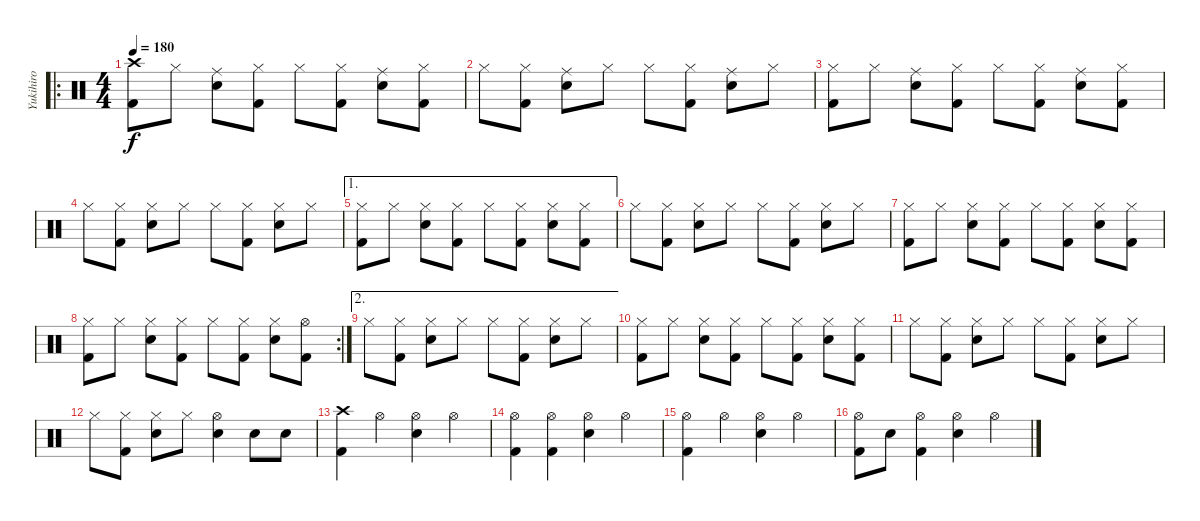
\track ("Yukihiro" "Yukihiro") {instrument percussion}
\staff {score}
\articulation defaults
\ro
\ts (4 4)
\tempo 180
\clef neutral
\ks c
("Crash high (hit)" "Kick (hit) 2").8{dy f} "Hi-Hat (closed)".8 ("Ride (middle)" "Electric Snare (hit)").8 ("Hi-Hat (closed)" "Kick (hit) 2").8 "Hi-Hat (closed)".8 ("Hi-Hat (closed)" "Kick (hit) 2").8 ("Ride (middle)" "Electric Snare (hit)").8 ("Hi-Hat (closed)" "Kick (hit) 2").8 |
"Hi-Hat (closed)".8 ("Hi-Hat (closed)" "Kick (hit) 2").8 ("Ride (middle)" "Electric Snare (hit)").8 "Hi-Hat (closed)".8 "Hi-Hat (closed)".8 ("Hi-Hat (closed)" "Kick (hit) 2").8 ("Ride (middle)" "Electric Snare (hit)").8 "Hi-Hat (closed)".8 |
("Hi-Hat (closed)" "Kick (hit) 2").8 "Hi-Hat (closed)".8 ("Ride (middle)" "Electric Snare (hit)").8 ("Hi-Hat (closed)" "Kick (hit) 2").8 "Hi-Hat (closed)".8 ("Hi-Hat (closed)" "Kick (hit) 2").8 ("Ride (middle)" "Electric Snare (hit)").8 ("Hi-Hat (closed)" "Kick (hit) 2").8 |
"Hi-Hat (closed)".8 ("Hi-Hat (closed)" "Kick (hit) 2").8 ("Hi-Hat (closed)" "Electric Snare (hit)").8 "Hi-Hat (closed)".8 "Hi-Hat (closed)".8 ("Hi-Hat (closed)" "Kick (hit) 2").8 ("Hi-Hat (closed)" "Electric Snare (hit)").8 "Hi-Hat (closed)".8 |
\ae 1
("Hi-Hat (closed)" "Kick (hit) 2").8 "Hi-Hat (closed)".8 ("Hi-Hat (closed)" "Electric Snare (hit)").8 ("Hi-Hat (closed)" "Kick (hit) 2").8 "Hi-Hat (closed)".8 ("Hi-Hat (closed)" "Kick (hit) 2").8 ("Hi-Hat (closed)" "Electric Snare (hit)").8 ("Hi-Hat (closed)" "Kick (hit) 2").8 |
"Hi-Hat (closed)".8 ("Hi-Hat (closed)" "Kick (hit) 2").8 ("Hi-Hat (closed)" "Electric Snare (hit)").8 "Hi-Hat (closed)".8 "Hi-Hat (closed)".8 ("Hi-Hat (closed)" "Kick (hit) 2").8 ("Hi-Hat (closed)" "Electric Snare (hit)").8 "Hi-Hat (closed)".8 |
("Hi-Hat (closed)" "Kick (hit) 2").8 "Hi-Hat (closed)".8 ("Hi-Hat (closed)" "Electric Snare (hit)").8 ("Hi-Hat (closed)" "Kick (hit) 2").8 "Hi-Hat (closed)".8 ("Hi-Hat (closed)" "Kick (hit) 2").8 ("Hi-Hat (closed)" "Electric Snare (hit)").8 ("Hi-Hat (closed)" "Kick (hit) 2").8 |
\rc 2
("Hi-Hat (closed)" "Kick (hit) 2").8 "Hi-Hat (closed)".8 ("Hi-Hat (closed)" "Electric Snare (hit)").8 ("Hi-Hat (closed)" "Kick (hit) 2").8 "Hi-Hat (closed)".8 ("Hi-Hat (closed)" "Kick (hit) 2").8 ("Hi-Hat (closed)" "Electric Snare (hit)").8 ("Hi-Hat (open)" "Kick (hit) 2").8 |
\ae 2 "Hi-Hat (closed)".8
("Hi-Hat (closed)" "Kick (hit) 2").8 ("Hi-Hat (closed)" "Electric Snare (hit)").8 "Hi-Hat (closed)".8 "Hi-Hat (closed)".8 ("Hi-Hat (closed)" "Kick (hit) 2").8 ("Hi-Hat (closed)" "Electric Snare (hit)").8 "Hi-Hat (closed)".8 |
("Hi-Hat (closed)" "Kick (hit) 2").8 "Hi-Hat (closed)".8 ("Hi-Hat (closed)" "Electric Snare (hit)").8 ("Hi-Hat (closed)" "Kick (hit) 2").8 "Hi-Hat (closed)".8 ("Hi-Hat (closed)" "Kick (hit) 2").8 ("Hi-Hat (closed)" "Electric Snare (hit)").8 ("Hi-Hat (closed)" "Kick (hit) 2").8 |
"Hi-Hat (closed)".8 ("Hi-Hat (closed)" "Kick (hit) 2").8 ("Hi-Hat (closed)" "Electric Snare (hit)").8 "Hi-Hat (closed)".8 "Hi-Hat (closed)".8 ("Hi-Hat (closed)" "Kick (hit) 2").8 ("Hi-Hat (closed)" "Electric Snare (hit)").8 "Hi-Hat (closed)".8 |
"Hi-Hat (closed)".8 ("Hi-Hat (closed)" "Kick (hit) 2").8 ("Hi-Hat (closed)" "Electric Snare (hit)").8 "Hi-Hat (closed)".8 ("Hi-Hat (open)" "Electric Snare (hit)").4 "Electric Snare (hit)".8 "Electric Snare (hit)".8 |
("Crash high (hit)" "Kick (hit) 2").4 "Hi-Hat (open)".4 ("Hi-Hat (open)" "Electric Snare (hit)").4 "Hi-Hat (open)".4 |
("Hi-Hat (open)" "Kick (hit) 2").4 ("Hi-Hat (open)" "Kick (hit) 2").4 ("Hi-Hat (open)" "Electric Snare (hit)").4 "Hi-Hat (open)".4 |
("Hi-Hat (open)" "Kick (hit) 2").4 "Hi-Hat (open)".4 ("Hi-Hat (open)" "Electric Snare (hit)").4 "Hi-Hat (open)".4 |
("Hi-Hat (open)" "Kick (hit) 2").8 "Electric Snare (hit)".8 ("Hi-Hat (open)" "Kick (hit) 2").4 ("Hi-Hat (open)" "Electric Snare (hit)").4 "Hi-Hat (open)".4
